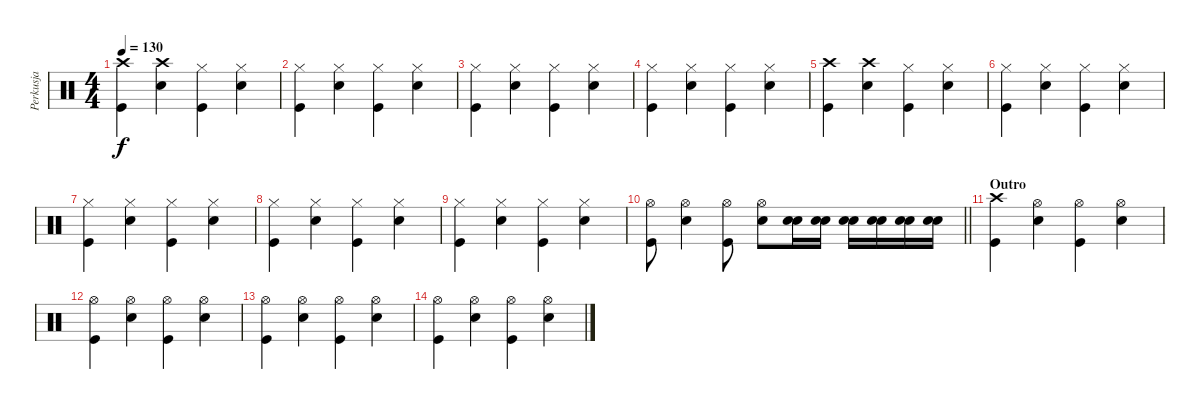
\track ("Perkusja" "Perkusja") {instrument percussion}
\staff {score}
\articulation defaults
\ts (4 4)
\tempo 130
\clef neutral
\ks c
("Crash high (hit)" "Kick (hit)").4{dy f} ("Crash high (hit)" "Snare (hit) 2").4 ("Hi-Hat (closed)" "Kick (hit)").4 ("Hi-Hat (closed)" "Snare (hit) 2").4 |
("Hi-Hat (closed)" "Kick (hit)").4 ("Hi-Hat (closed)" "Snare (hit) 2").4 ("Hi-Hat (closed)" "Kick (hit)").4 ("Hi-Hat (closed)" "Snare (hit) 2").4 |
("Hi-Hat (closed)" "Kick (hit)").4 ("Hi-Hat (closed)" "Snare (hit) 2").4 ("Hi-Hat (closed)" "Kick (hit)").4 ("Hi-Hat (closed)" "Snare (hit) 2").4 |
("Hi-Hat (closed)" "Kick (hit)").4 ("Hi-Hat (closed)" "Snare (hit) 2").4 ("Hi-Hat (closed)" "Kick (hit)").4 ("Hi-Hat (closed)" "Snare (hit) 2").4 |
("Crash high (hit)" "Kick (hit)").4 ("Crash high (hit)" "Snare (hit) 2").4 ("Hi-Hat (closed)" "Kick (hit)").4 ("Hi-Hat (closed)" "Snare (hit) 2").4 |
("Hi-Hat (closed)" "Kick (hit)").4 ("Hi-Hat (closed)" "Snare (hit) 2").4 ("Hi-Hat (closed)" "Kick (hit)").4 ("Hi-Hat (closed)" "Snare (hit) 2").4 |
("Hi-Hat (closed)" "Kick (hit)").4 ("Hi-Hat (closed)" "Snare (hit) 2").4 ("Hi-Hat (closed)" "Kick (hit)").4 ("Hi-Hat (closed)" "Snare (hit) 2").4 |
("Hi-Hat (closed)" "Kick (hit)").4 ("Hi-Hat (closed)" "Snare (hit) 2").4 ("Hi-Hat (closed)" "Kick (hit)").4 ("Hi-Hat (closed)" "Snare (hit) 2").4 |
("Hi-Hat (closed)" "Kick (hit)").4 ("Hi-Hat (closed)" "Snare (hit) 2").4 ("Hi-Hat (closed)" "Kick (hit)").4 ("Hi-Hat (closed)" "Snare (hit) 2").4 |
\barLineRight lightlight
("Hi-Hat (open)" "Kick (hit)").8 ("Hi-Hat (open)" "Snare (hit) 2").4 ("Hi-Hat (open)" "Kick (hit)").8 ("Hi-Hat (open)" "Snare (hit) 2").8 ("Electric Snare (hit)" "Snare (hit) 2").16 ("Electric Snare (hit)" "Snare (hit) 2").16 ("Electric Snare (hit)" "Snare (hit) 2").16 ("Electric Snare (hit)" "Snare (hit) 2").16 ("Electric Snare (hit)" "Snare (hit) 2").16 ("Electric Snare (hit)" "Snare (hit) 2").16 |
\section ("" "Outro")
("Crash high (hit)" "Kick (hit)").4 ("Hi-Hat (open)" "Snare (hit) 2").4 ("Hi-Hat (open)" "Kick (hit)").4 ("Hi-Hat (open)" "Snare (hit) 2").4 |
("Hi-Hat (open)" "Kick (hit)").4 ("Hi-Hat (open)" "Snare (hit) 2").4 ("Hi-Hat (open)" "Kick (hit)").4 ("Hi-Hat (open)" "Snare (hit) 2").4 |
("Hi-Hat (open)" "Kick (hit)").4 ("Hi-Hat (open)" "Snare (hit) 2").4 ("Hi-Hat (open)" "Kick (hit)").4 ("Hi-Hat (open)" "Snare (hit) 2").4 |
("Hi-Hat (open)" "Kick (hit)").4 ("Hi-Hat (open)" "Snare (hit) 2").4 ("Hi-Hat (open)" "Kick (hit)").4 ("Hi-Hat (open)" "Snare (hit) 2").4
